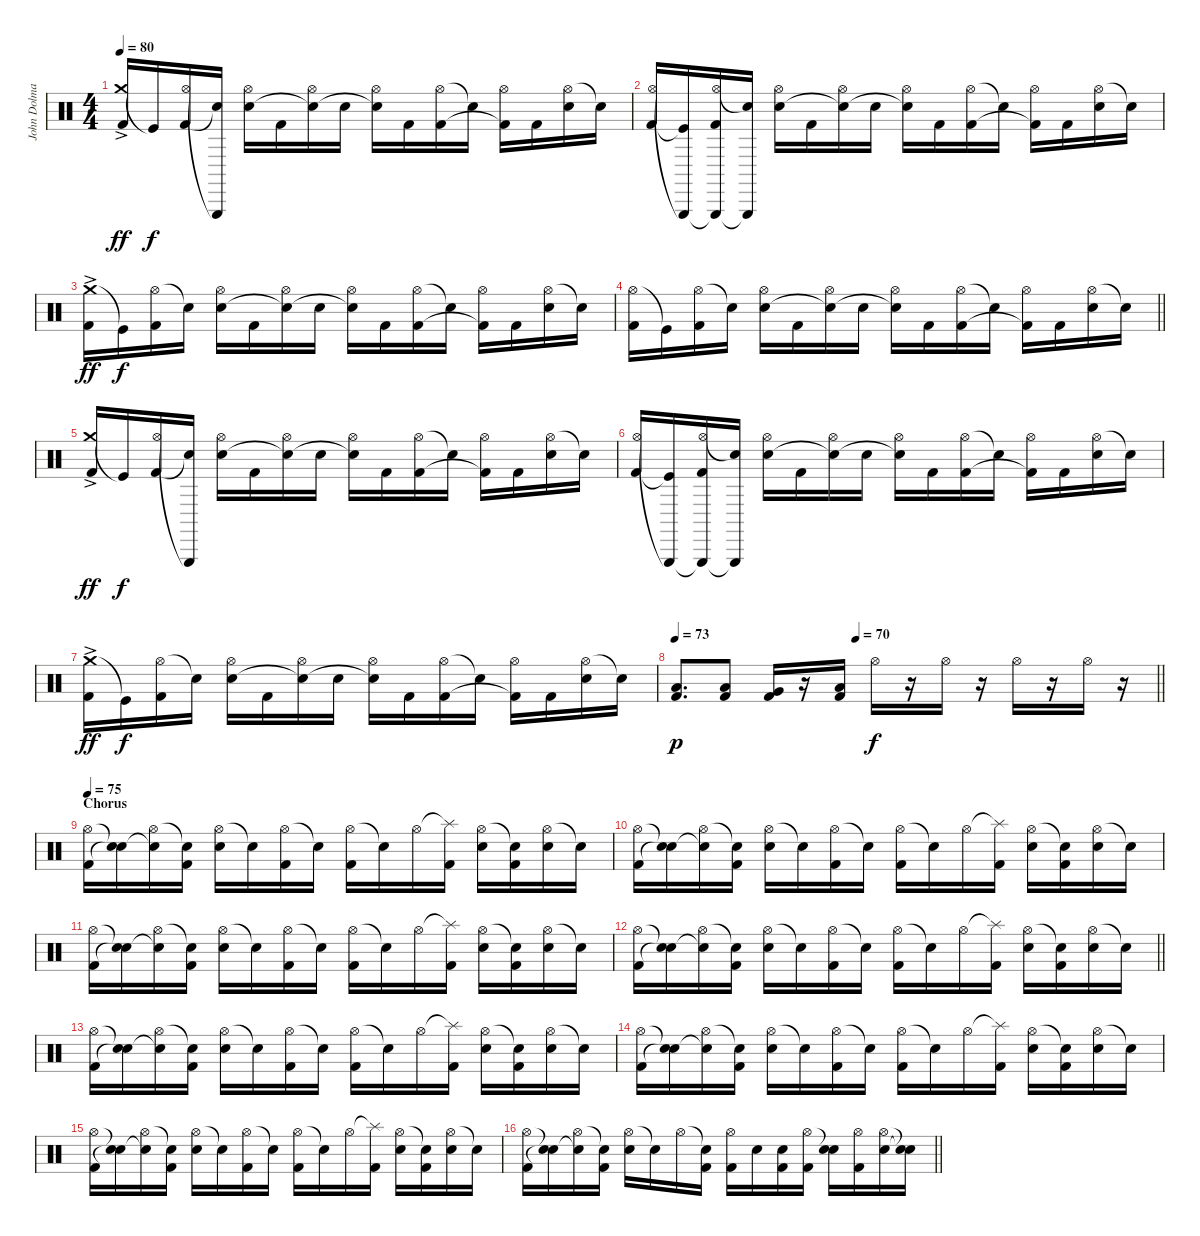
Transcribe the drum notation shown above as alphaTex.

\track ("John Dolmayan (drums)" "John Dolma") {instrument percussion}
\staff
\articulation defaults
\ts (4 4)
\tempo 80
\clef neutral
\ks c
("Crash medium (hit)"{ac} "Kick (hit) 2").16{dy ff} "Kick (hit)"{t}.16{dy f} ("Hi-Hat (open)" "Kick (hit) 2").16 ("Triangle (hit)"{t} "Snare (hit)"{t}).16 ("Hi-Hat (open)" "Electric Snare (hit)").16 "Kick (hit) 2".16 ("Hi-Hat (open)" "Snare (hit)"{t}).16 "Electric Snare (hit)".16 ("Hi-Hat (open)" "Snare (hit)"{t}).16 "Kick (hit) 2".16 ("Hi-Hat (open)" "Kick (hit) 2").16 "Snare (hit)"{t}.16 ("Hi-Hat (open)" "Kick (hit) 2"{t}).16 "Kick (hit) 2".16 ("Hi-Hat (open)" "Electric Snare (hit)").16 "Snare (hit)"{t}.16 |
("Hi-Hat (open)" "Kick (hit) 2").16 ("Triangle (hit)"{t} "Kick (hit)"{t}).16 ("Triangle (hit)"{t} "Hi-Hat (open)" "Kick (hit) 2").16 ("Triangle (hit)"{t} "Snare (hit)"{t}).16 ("Hi-Hat (open)" "Electric Snare (hit)").16 "Kick (hit) 2".16 ("Hi-Hat (open)" "Snare (hit)"{t}).16 "Electric Snare (hit)".16 ("Hi-Hat (open)" "Snare (hit)"{t}).16 "Kick (hit) 2".16 ("Hi-Hat (open)" "Kick (hit) 2").16 "Snare (hit)"{t}.16 ("Hi-Hat (open)" "Kick (hit) 2"{t}).16 "Kick (hit) 2".16 ("Hi-Hat (open)" "Electric Snare (hit)").16 "Snare (hit)"{t}.16 |
("Crash medium (hit)"{ac} "Kick (hit) 2").16{dy ff} "Kick (hit)"{t}.16{dy f} ("Hi-Hat (open)" "Kick (hit) 2").16 "Snare (hit)"{t}.16 ("Hi-Hat (open)" "Electric Snare (hit)").16 "Kick (hit) 2".16 ("Hi-Hat (open)" "Snare (hit)"{t}).16 "Electric Snare (hit)".16 ("Hi-Hat (open)" "Snare (hit)"{t}).16 "Kick (hit) 2".16 ("Hi-Hat (open)" "Kick (hit) 2").16 "Snare (hit)"{t}.16 ("Hi-Hat (open)" "Kick (hit) 2"{t}).16 "Kick (hit) 2".16 ("Hi-Hat (open)" "Electric Snare (hit)").16 "Snare (hit)"{t}.16 |
\barLineRight lightlight
("Hi-Hat (open)" "Kick (hit) 2").16 "Kick (hit)"{t}.16 ("Hi-Hat (open)" "Kick (hit) 2").16 "Snare (hit)"{t}.16 ("Hi-Hat (open)" "Electric Snare (hit)").16 "Kick (hit) 2".16 ("Hi-Hat (open)" "Snare (hit)"{t}).16 "Electric Snare (hit)".16 ("Hi-Hat (open)" "Snare (hit)"{t}).16 "Kick (hit) 2".16 ("Hi-Hat (open)" "Kick (hit) 2").16 "Snare (hit)"{t}.16 ("Hi-Hat (open)" "Kick (hit) 2"{t}).16 "Kick (hit) 2".16 ("Hi-Hat (open)" "Electric Snare (hit)").16 "Snare (hit)"{t}.16 |
("Crash medium (hit)"{ac} "Kick (hit) 2").16{dy ff} "Kick (hit)"{t}.16{dy f} ("Hi-Hat (open)" "Kick (hit) 2").16 ("Triangle (hit)"{t} "Snare (hit)"{t}).16 ("Hi-Hat (open)" "Electric Snare (hit)").16 "Kick (hit) 2".16 ("Hi-Hat (open)" "Snare (hit)"{t}).16 "Electric Snare (hit)".16 ("Hi-Hat (open)" "Snare (hit)"{t}).16 "Kick (hit) 2".16 ("Hi-Hat (open)" "Kick (hit) 2").16 "Snare (hit)"{t}.16 ("Hi-Hat (open)" "Kick (hit) 2"{t}).16 "Kick (hit) 2".16 ("Hi-Hat (open)" "Electric Snare (hit)").16 "Snare (hit)"{t}.16 |
("Hi-Hat (open)" "Kick (hit) 2").16 ("Triangle (hit)"{t} "Kick (hit)"{t}).16 ("Triangle (hit)"{t} "Hi-Hat (open)" "Kick (hit) 2").16 ("Triangle (hit)"{t} "Snare (hit)"{t}).16 ("Hi-Hat (open)" "Electric Snare (hit)").16 "Kick (hit) 2".16 ("Hi-Hat (open)" "Snare (hit)"{t}).16 "Electric Snare (hit)".16 ("Hi-Hat (open)" "Snare (hit)"{t}).16 "Kick (hit) 2".16 ("Hi-Hat (open)" "Kick (hit) 2").16 "Snare (hit)"{t}.16 ("Hi-Hat (open)" "Kick (hit) 2"{t}).16 "Kick (hit) 2".16 ("Hi-Hat (open)" "Electric Snare (hit)").16 "Snare (hit)"{t}.16 |
("Crash medium (hit)"{ac} "Kick (hit) 2").16{dy ff} "Kick (hit)"{t}.16{dy f} ("Hi-Hat (open)" "Kick (hit) 2").16 "Snare (hit)"{t}.16 ("Hi-Hat (open)" "Electric Snare (hit)").16 "Kick (hit) 2".16 ("Hi-Hat (open)" "Snare (hit)"{t}).16 "Electric Snare (hit)".16 ("Hi-Hat (open)" "Snare (hit)"{t}).16 "Kick (hit) 2".16 ("Hi-Hat (open)" "Kick (hit) 2").16 "Snare (hit)"{t}.16 ("Hi-Hat (open)" "Kick (hit) 2"{t}).16 "Kick (hit) 2".16 ("Hi-Hat (open)" "Electric Snare (hit)").16 "Snare (hit)"{t}.16 |
\tempo 73
\tempo (70 0.375)
\barLineRight lightlight
("Low Tom (hit)" "Kick (hit) 2").8{d dy p} ("Low Tom (hit)" "Kick (hit) 2").8 ("Very Low Tom (hit)" "Kick (hit) 2").16 r.16 ("Low Floor Tom (hit)" "Kick (hit) 2").16 "Hi-Hat (open)".16{dy f} r.16 "Hi-Hat (open)".16 r.16 "Hi-Hat (open)".16 r.16 "Hi-Hat (open)".16 r.16 |
\section ("" "Chorus")
\tempo 75
("Hi-Hat (open)" "Kick (hit) 2").16{volume 16} ("Snare (hit)"{t} "Snare (hit)"{t}).16 ("Hi-Hat (open)" "Snare (hit)"{t}).16 ("Snare (hit)"{t} "Kick (hit) 2").16 ("Hi-Hat (open)" "Electric Snare (hit)").16 "Snare (hit)"{t}.16 ("Hi-Hat (open)" "Kick (hit) 2").16 "Snare (hit)"{t}.16 ("Hi-Hat (open)" "Kick (hit) 2").16 "Snare (hit)"{t}.16 "Hi-Hat (open)".16 ("Splash (hit)"{t} "Kick (hit) 2").16 ("Hi-Hat (open)" "Electric Snare (hit)").16 ("Snare (hit)"{t} "Kick (hit) 2").16 ("Hi-Hat (open)" "Electric Snare (hit)").16 "Snare (hit)"{t}.16 |
("Hi-Hat (open)" "Kick (hit) 2").16 ("Snare (hit)"{t} "Snare (hit)"{t}).16 ("Hi-Hat (open)" "Snare (hit)"{t}).16 ("Snare (hit)"{t} "Kick (hit) 2").16 ("Hi-Hat (open)" "Electric Snare (hit)").16 "Snare (hit)"{t}.16 ("Hi-Hat (open)" "Kick (hit) 2").16 "Snare (hit)"{t}.16 ("Hi-Hat (open)" "Kick (hit) 2").16 "Snare (hit)"{t}.16 "Hi-Hat (open)".16 ("Splash (hit)"{t} "Kick (hit) 2").16 ("Hi-Hat (open)" "Electric Snare (hit)").16 ("Snare (hit)"{t} "Kick (hit) 2").16 ("Hi-Hat (open)" "Electric Snare (hit)").16 "Snare (hit)"{t}.16 |
("Hi-Hat (open)" "Kick (hit) 2").16 ("Snare (hit)"{t} "Snare (hit)"{t}).16 ("Hi-Hat (open)" "Snare (hit)"{t}).16 ("Snare (hit)"{t} "Kick (hit) 2").16 ("Hi-Hat (open)" "Electric Snare (hit)").16 "Snare (hit)"{t}.16 ("Hi-Hat (open)" "Kick (hit) 2").16 "Snare (hit)"{t}.16 ("Hi-Hat (open)" "Kick (hit) 2").16 "Snare (hit)"{t}.16 "Hi-Hat (open)".16 ("Splash (hit)"{t} "Kick (hit) 2").16 ("Hi-Hat (open)" "Electric Snare (hit)").16 ("Snare (hit)"{t} "Kick (hit) 2").16 ("Hi-Hat (open)" "Electric Snare (hit)").16 "Snare (hit)"{t}.16 |
\barLineRight lightlight
("Hi-Hat (open)" "Kick (hit) 2").16 ("Snare (hit)"{t} "Snare (hit)"{t}).16 ("Hi-Hat (open)" "Snare (hit)"{t}).16 ("Snare (hit)"{t} "Kick (hit) 2").16 ("Hi-Hat (open)" "Electric Snare (hit)").16 "Snare (hit)"{t}.16 ("Hi-Hat (open)" "Kick (hit) 2").16 "Snare (hit)"{t}.16 ("Hi-Hat (open)" "Kick (hit) 2").16 "Snare (hit)"{t}.16 "Hi-Hat (open)".16 ("Splash (hit)"{t} "Kick (hit) 2").16 ("Hi-Hat (open)" "Electric Snare (hit)").16 ("Snare (hit)"{t} "Kick (hit) 2").16 ("Hi-Hat (open)" "Electric Snare (hit)").16 "Snare (hit)"{t}.16 |
("Hi-Hat (open)" "Kick (hit) 2").16 ("Snare (hit)"{t} "Snare (hit)"{t}).16 ("Hi-Hat (open)" "Snare (hit)"{t}).16 ("Snare (hit)"{t} "Kick (hit) 2").16 ("Hi-Hat (open)" "Electric Snare (hit)").16 "Snare (hit)"{t}.16 ("Hi-Hat (open)" "Kick (hit) 2").16 "Snare (hit)"{t}.16 ("Hi-Hat (open)" "Kick (hit) 2").16 "Snare (hit)"{t}.16 "Hi-Hat (open)".16 ("Splash (hit)"{t} "Kick (hit) 2").16 ("Hi-Hat (open)" "Electric Snare (hit)").16 ("Snare (hit)"{t} "Kick (hit) 2").16 ("Hi-Hat (open)" "Electric Snare (hit)").16 "Snare (hit)"{t}.16 |
("Hi-Hat (open)" "Kick (hit) 2").16 ("Snare (hit)"{t} "Snare (hit)"{t}).16 ("Hi-Hat (open)" "Snare (hit)"{t}).16 ("Snare (hit)"{t} "Kick (hit) 2").16 ("Hi-Hat (open)" "Electric Snare (hit)").16 "Snare (hit)"{t}.16 ("Hi-Hat (open)" "Kick (hit) 2").16 "Snare (hit)"{t}.16 ("Hi-Hat (open)" "Kick (hit) 2").16 "Snare (hit)"{t}.16 "Hi-Hat (open)".16 ("Splash (hit)"{t} "Kick (hit) 2").16 ("Hi-Hat (open)" "Electric Snare (hit)").16 ("Snare (hit)"{t} "Kick (hit) 2").16 ("Hi-Hat (open)" "Electric Snare (hit)").16 "Snare (hit)"{t}.16 |
("Hi-Hat (open)" "Kick (hit) 2").16 ("Snare (hit)"{t} "Snare (hit)"{t}).16 ("Hi-Hat (open)" "Snare (hit)"{t}).16 ("Snare (hit)"{t} "Kick (hit) 2").16 ("Hi-Hat (open)" "Electric Snare (hit)").16 "Snare (hit)"{t}.16 ("Hi-Hat (open)" "Kick (hit) 2").16 "Snare (hit)"{t}.16 ("Hi-Hat (open)" "Kick (hit) 2").16 "Snare (hit)"{t}.16 "Hi-Hat (open)".16 ("Splash (hit)"{t} "Kick (hit) 2").16 ("Hi-Hat (open)" "Electric Snare (hit)").16 ("Snare (hit)"{t} "Kick (hit) 2").16 ("Hi-Hat (open)" "Electric Snare (hit)").16 "Snare (hit)"{t}.16 |
\barLineRight lightlight
("Hi-Hat (open)" "Kick (hit) 2").16 ("Snare (hit)"{t} "Snare (hit)"{t}).16 ("Hi-Hat (open)" "Snare (hit)"{t}).16 ("Snare (hit)"{t} "Kick (hit) 2").16 ("Hi-Hat (open)" "Electric Snare (hit)").16 "Snare (hit)"{t}.16 "Hi-Hat (open)".16 ("Snare (hit)"{t} "Kick (hit) 2").16 ("Hi-Hat (open)" "Kick (hit) 2").16 "Electric Snare (hit)".16 ("Electric Snare (hit)" "Kick (hit) 2").16 ("Hi-Hat (open)" "Kick (hit) 2").16 ("Snare (hit)"{t} "Electric Snare (hit)").16 ("Hi-Hat (open)" "Kick (hit) 2").16 ("Hi-Hat (open)" "Electric Snare (hit)").16 ("Snare (hit)"{t} "Electric Snare (hit)"{t}).16
